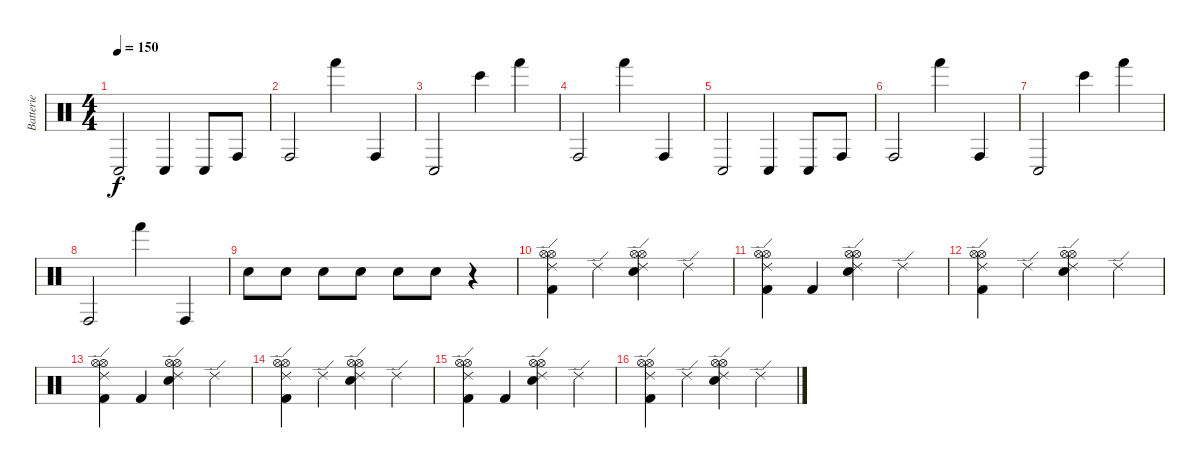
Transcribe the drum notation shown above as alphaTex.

\track ("Batterie" "Batterie") {instrument percussion}
\staff {score}
\articulation defaults
\ts (4 4)
\tempo 150
\clef neutral
\ks c "Conga low (hit)".2{dy f} "Conga low (hit)".4 "Conga low (hit)".8 "Conga high (hit)".8
|
"Conga high (hit)".2 "Hand (hit)".4 "Conga high (hit)".4 |
"Conga low (hit)".2 "Bongo High (hit)".4 "Hand (hit)".4 |
"Conga high (hit)".2 "Hand (hit)".4 "Conga high (hit)".4 |
"Conga low (hit)".2 "Conga low (hit)".4 "Conga low (hit)".8 "Conga high (hit)".8 |
"Conga high (hit)".2 "Hand (hit)".4 "Conga high (hit)".4 |
"Conga low (hit)".2 "Bongo High (hit)".4 "Hand (hit)".4 |
"Conga high (hit)".2 "Hand (hit)".4 "Conga high (hit)".4 |
"Snare (hit) 2".8 "Snare (hit) 2".8 "Snare (hit) 2".8 "Snare (hit) 2".8 "Snare (hit) 2".8 "Snare (hit) 2".8 r.4 |
\section ("" "")
("Hi-Hat (open)" "Hi-Hat (open)" "Ride (edge) 2" "Kick (hit) 2").4 "Ride (edge) 2".4 ("Snare (hit) 2" "Hi-Hat (open)" "Hi-Hat (open)" "Ride (edge) 2").4 "Ride (edge) 2".4 |
("Hi-Hat (open)" "Hi-Hat (open)" "Ride (edge) 2" "Kick (hit) 2").4 "Kick (hit) 2".4 ("Snare (hit) 2" "Hi-Hat (open)" "Hi-Hat (open)" "Ride (edge) 2").4 "Ride (edge) 2".4 |
("Hi-Hat (open)" "Hi-Hat (open)" "Ride (edge) 2" "Kick (hit) 2").4 "Ride (edge) 2".4 ("Snare (hit) 2" "Hi-Hat (open)" "Hi-Hat (open)" "Ride (edge) 2").4 "Ride (edge) 2".4 |
("Hi-Hat (open)" "Hi-Hat (open)" "Ride (edge) 2" "Kick (hit) 2").4 "Kick (hit) 2".4 ("Snare (hit) 2" "Hi-Hat (open)" "Hi-Hat (open)" "Ride (edge) 2").4 "Ride (edge) 2".4 |
("Hi-Hat (open)" "Hi-Hat (open)" "Ride (edge) 2" "Kick (hit) 2").4 "Ride (edge) 2".4 ("Snare (hit) 2" "Hi-Hat (open)" "Hi-Hat (open)" "Ride (edge) 2").4 "Ride (edge) 2".4 |
("Hi-Hat (open)" "Hi-Hat (open)" "Ride (edge) 2" "Kick (hit) 2").4 "Kick (hit) 2".4 ("Snare (hit) 2" "Hi-Hat (open)" "Hi-Hat (open)" "Ride (edge) 2").4 "Ride (edge) 2".4 |
("Hi-Hat (open)" "Hi-Hat (open)" "Ride (edge) 2" "Kick (hit) 2").4 "Ride (edge) 2".4 ("Snare (hit) 2" "Hi-Hat (open)" "Hi-Hat (open)" "Ride (edge) 2").4 "Ride (edge) 2".4
